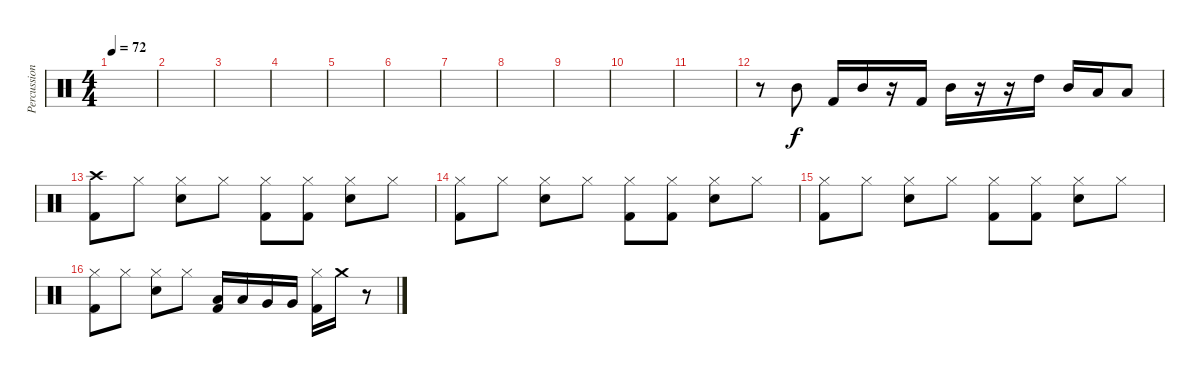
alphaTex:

\track ("Percussion" "Percussion") {instrument percussion}
\staff {score}
\articulation defaults
\ts (4 4)
\tempo 72
\clef neutral
\ks c
|
|
|
|
|
|
|
|
|
|
|
r.8 "Mid Tom (hit)".8 "Kick (hit) 2".16 "Mid Tom (hit)".16 r.16 "Kick (hit) 2".16 "Mid Tom (hit)".16 r.16 r.16 "High Tom (hit)".16 "Mid Tom (hit)".16 "Low Tom (hit)".16 "Low Tom (hit)".8 |
("Crash high (hit)" "Kick (hit) 2").8 "Hi-Hat (closed)".8 ("Hi-Hat (closed)" "Snare (hit) 2").8 "Hi-Hat (closed)".8 ("Hi-Hat (closed)" "Kick (hit) 2").8 ("Hi-Hat (closed)" "Kick (hit) 2").8 ("Hi-Hat (closed)" "Snare (hit) 2").8 "Hi-Hat (closed)".8 |
("Hi-Hat (closed)" "Kick (hit) 2").8 "Hi-Hat (closed)".8 ("Hi-Hat (closed)" "Snare (hit) 2").8 "Hi-Hat (closed)".8 ("Hi-Hat (closed)" "Kick (hit) 2").8 ("Hi-Hat (closed)" "Kick (hit) 2").8 ("Hi-Hat (closed)" "Snare (hit) 2").8 "Hi-Hat (closed)".8 |
("Hi-Hat (closed)" "Kick (hit) 2").8 "Hi-Hat (closed)".8 ("Hi-Hat (closed)" "Snare (hit) 2").8 "Hi-Hat (closed)".8 ("Hi-Hat (closed)" "Kick (hit) 2").8 ("Hi-Hat (closed)" "Kick (hit) 2").8 ("Hi-Hat (closed)" "Snare (hit) 2").8 "Hi-Hat (closed)".8 |
("Hi-Hat (closed)" "Kick (hit) 2").8 "Hi-Hat (closed)".8 ("Hi-Hat (closed)" "Snare (hit) 2").8 "Hi-Hat (closed)".8 ("Low Tom (hit)" "Kick (hit) 2").16 "Low Tom (hit)".16 "Very Low Tom (hit)".16 "Very Low Tom (hit)".16 ("Hi-Hat (closed)" "Kick (hit) 2").16 "Crash medium (hit)".16 r.8
